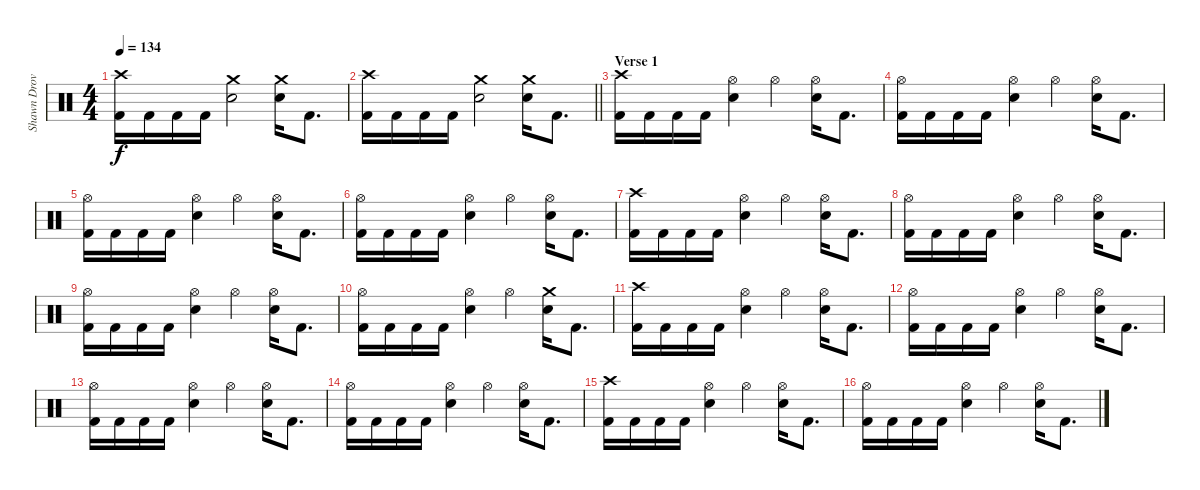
\track ("Shawn Drover" "Shawn Drov") {instrument percussion}
\staff {score}
\articulation defaults
\ts (4 4)
\tempo 134
\clef neutral
\ks c
("Crash high (hit)" "Kick (hit) 2").16{dy f} "Kick (hit) 2".16 "Kick (hit) 2".16 "Kick (hit) 2".16 ("Crash medium (hit)" "Snare (hit) 2").2 ("Crash medium (hit)" "Snare (hit) 2").16 "Kick (hit) 2".8{d} |
\barLineRight lightlight
("Crash high (hit)" "Kick (hit) 2").16 "Kick (hit) 2".16 "Kick (hit) 2".16 "Kick (hit) 2".16 ("Crash medium (hit)" "Snare (hit) 2").2 ("Crash medium (hit)" "Snare (hit) 2").16 "Kick (hit) 2".8{d} |
\section ("" "Verse 1")
("Crash high (hit)" "Kick (hit) 2").16 "Kick (hit) 2".16 "Kick (hit) 2".16 "Kick (hit) 2".16 ("Hi-Hat (open)" "Snare (hit) 2").4 "Hi-Hat (open)".4 ("Hi-Hat (open)" "Snare (hit) 2").16 "Kick (hit) 2".8{d} |
("Hi-Hat (open)" "Kick (hit) 2").16 "Kick (hit) 2".16 "Kick (hit) 2".16 "Kick (hit) 2".16 ("Hi-Hat (open)" "Snare (hit) 2").4 "Hi-Hat (open)".4 ("Hi-Hat (open)" "Snare (hit) 2").16 "Kick (hit) 2".8{d} |
("Hi-Hat (open)" "Kick (hit) 2").16 "Kick (hit) 2".16 "Kick (hit) 2".16 "Kick (hit) 2".16 ("Hi-Hat (open)" "Snare (hit) 2").4 "Hi-Hat (open)".4 ("Hi-Hat (open)" "Snare (hit) 2").16 "Kick (hit) 2".8{d} |
("Hi-Hat (open)" "Kick (hit) 2").16 "Kick (hit) 2".16 "Kick (hit) 2".16 "Kick (hit) 2".16 ("Hi-Hat (open)" "Snare (hit) 2").4 "Hi-Hat (open)".4 ("Hi-Hat (open)" "Snare (hit) 2").16 "Kick (hit) 2".8{d} |
("Crash high (hit)" "Kick (hit) 2").16 "Kick (hit) 2".16 "Kick (hit) 2".16 "Kick (hit) 2".16 ("Hi-Hat (open)" "Snare (hit) 2").4 "Hi-Hat (open)".4 ("Hi-Hat (open)" "Snare (hit) 2").16 "Kick (hit) 2".8{d} |
("Hi-Hat (open)" "Kick (hit) 2").16 "Kick (hit) 2".16 "Kick (hit) 2".16 "Kick (hit) 2".16 ("Hi-Hat (open)" "Snare (hit) 2").4 "Hi-Hat (open)".4 ("Hi-Hat (open)" "Snare (hit) 2").16 "Kick (hit) 2".8{d} |
("Hi-Hat (open)" "Kick (hit) 2").16 "Kick (hit) 2".16 "Kick (hit) 2".16 "Kick (hit) 2".16 ("Hi-Hat (open)" "Snare (hit) 2").4 "Hi-Hat (open)".4 ("Hi-Hat (open)" "Snare (hit) 2").16 "Kick (hit) 2".8{d} |
("Hi-Hat (open)" "Kick (hit) 2").16 "Kick (hit) 2".16 "Kick (hit) 2".16 "Kick (hit) 2".16 ("Hi-Hat (open)" "Snare (hit) 2").4 "Hi-Hat (open)".4 ("Crash medium (hit)" "Snare (hit) 2").16 "Kick (hit) 2".8{d} |
("Crash high (hit)" "Kick (hit) 2").16 "Kick (hit) 2".16 "Kick (hit) 2".16 "Kick (hit) 2".16 ("Hi-Hat (open)" "Snare (hit) 2").4 "Hi-Hat (open)".4 ("Hi-Hat (open)" "Snare (hit) 2").16 "Kick (hit) 2".8{d} |
("Hi-Hat (open)" "Kick (hit) 2").16 "Kick (hit) 2".16 "Kick (hit) 2".16 "Kick (hit) 2".16 ("Hi-Hat (open)" "Snare (hit) 2").4 "Hi-Hat (open)".4 ("Hi-Hat (open)" "Snare (hit) 2").16 "Kick (hit) 2".8{d} |
("Hi-Hat (open)" "Kick (hit) 2").16 "Kick (hit) 2".16 "Kick (hit) 2".16 "Kick (hit) 2".16 ("Hi-Hat (open)" "Snare (hit) 2").4 "Hi-Hat (open)".4 ("Hi-Hat (open)" "Snare (hit) 2").16 "Kick (hit) 2".8{d} |
("Hi-Hat (open)" "Kick (hit) 2").16 "Kick (hit) 2".16 "Kick (hit) 2".16 "Kick (hit) 2".16 ("Hi-Hat (open)" "Snare (hit) 2").4 "Hi-Hat (open)".4 ("Hi-Hat (open)" "Snare (hit) 2").16 "Kick (hit) 2".8{d} |
("Crash high (hit)" "Kick (hit) 2").16 "Kick (hit) 2".16 "Kick (hit) 2".16 "Kick (hit) 2".16 ("Hi-Hat (open)" "Snare (hit) 2").4 "Hi-Hat (open)".4 ("Hi-Hat (open)" "Snare (hit) 2").16 "Kick (hit) 2".8{d} |
("Hi-Hat (open)" "Kick (hit) 2").16 "Kick (hit) 2".16 "Kick (hit) 2".16 "Kick (hit) 2".16 ("Hi-Hat (open)" "Snare (hit) 2").4 "Hi-Hat (open)".4 ("Hi-Hat (open)" "Snare (hit) 2").16 "Kick (hit) 2".8{d}
